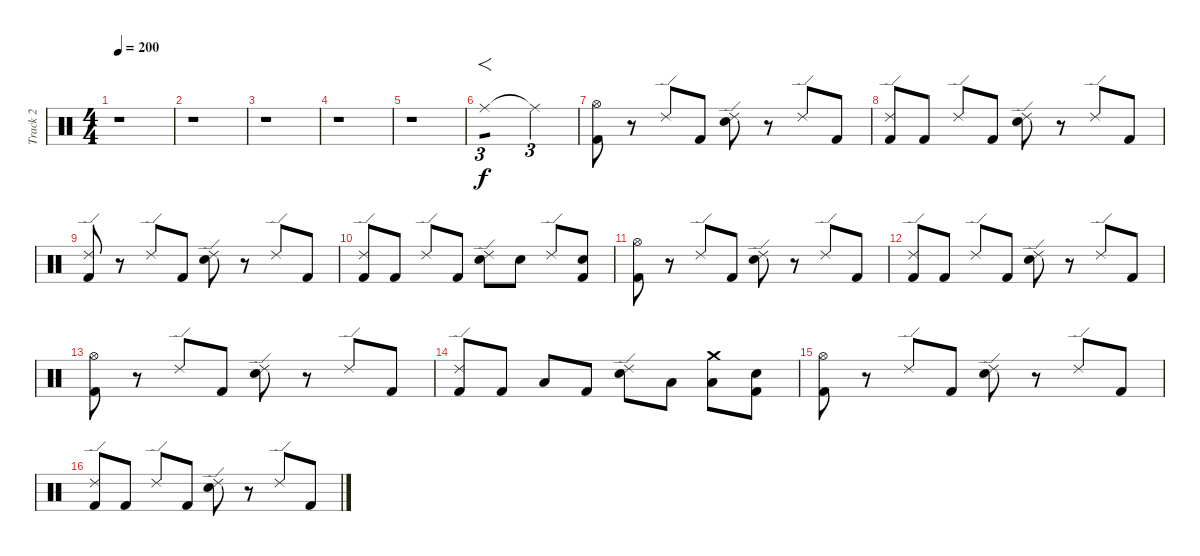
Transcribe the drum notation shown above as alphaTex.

\track ("Track 2" "Track 2") {instrument percussion}
\staff {score}
\articulation defaults
\ts (4 4)
\tempo 200
\clef neutral
\ks c
r.1{dy f} |
r.1 |
r.1 |
r.1 |
r.1 |
"Ride (middle)".1{f tu (3 2) tp 1} "Ride (middle)"{t}.2{tu (3 2)} |
("Hi-Hat (open)" "Kick (hit) 2").8 r.8 "Ride (edge) 2".8 "Kick (hit) 2".8 ("Ride (edge) 2" "Electric Snare (hit)").8 r.8 "Ride (edge) 2".8 "Kick (hit) 2".8 |
("Ride (edge) 2" "Kick (hit) 2").8 "Kick (hit) 2".8 "Ride (edge) 2".8 "Kick (hit) 2".8 ("Ride (edge) 2" "Electric Snare (hit)").8 r.8 "Ride (edge) 2".8 "Kick (hit) 2".8 |
("Ride (edge) 2" "Kick (hit) 2").8 r.8 "Ride (edge) 2".8 "Kick (hit) 2".8 ("Ride (edge) 2" "Electric Snare (hit)").8 r.8 "Ride (edge) 2".8 "Kick (hit) 2".8 |
("Ride (edge) 2" "Kick (hit) 2").8 "Kick (hit) 2".8 "Ride (edge) 2".8 "Kick (hit) 2".8 ("Ride (edge) 2" "Electric Snare (hit)").8 "Electric Snare (hit)".8 "Ride (edge) 2".8 ("Electric Snare (hit)" "Kick (hit) 2").8 |
("Hi-Hat (open)" "Kick (hit) 2").8 r.8 "Ride (edge) 2".8 "Kick (hit) 2".8 ("Ride (edge) 2" "Electric Snare (hit)").8 r.8 "Ride (edge) 2".8 "Kick (hit) 2".8 |
("Ride (edge) 2" "Kick (hit) 2").8 "Kick (hit) 2".8 "Ride (edge) 2".8 "Kick (hit) 2".8 ("Ride (edge) 2" "Electric Snare (hit)").8 r.8 "Ride (edge) 2".8 "Kick (hit) 2".8 |
("Hi-Hat (open)" "Kick (hit) 2").8 r.8 "Ride (edge) 2".8 "Kick (hit) 2".8 ("Ride (edge) 2" "Electric Snare (hit)").8 r.8 "Ride (edge) 2".8 "Kick (hit) 2".8 |
("Ride (edge) 2" "Kick (hit) 2").8 "Kick (hit) 2".8 "Low Floor Tom (hit)".8 "Kick (hit) 2".8 ("Ride (edge) 2" "Electric Snare (hit)").8 "Low Floor Tom (hit)".8 ("Crash medium (hit)" "Low Floor Tom (hit)").8 ("Electric Snare (hit)" "Kick (hit) 2").8 |
("Hi-Hat (open)" "Kick (hit) 2").8 r.8 "Ride (edge) 2".8 "Kick (hit) 2".8 ("Ride (edge) 2" "Electric Snare (hit)").8 r.8 "Ride (edge) 2".8 "Kick (hit) 2".8 |
("Ride (edge) 2" "Kick (hit) 2").8 "Kick (hit) 2".8 "Ride (edge) 2".8 "Kick (hit) 2".8 ("Ride (edge) 2" "Electric Snare (hit)").8 r.8 "Ride (edge) 2".8 "Kick (hit) 2".8
